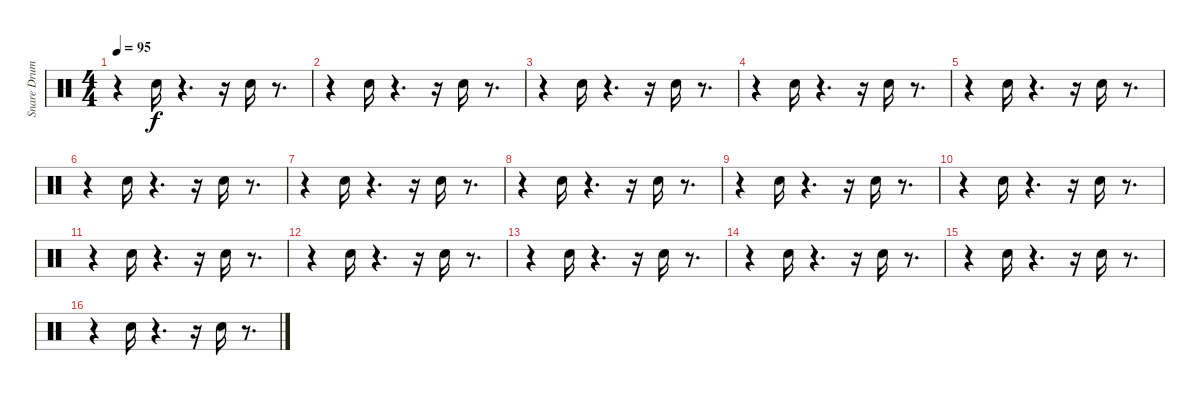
\track ("Snare Drum" "Snare Drum") {instrument percussion}
\staff {score}
\articulation defaults
\ts (4 4)
\tempo 95
\clef neutral
\ks c
r.4{dy f} "Snare (hit) 2".16 r.4{d} r.16 "Snare (hit) 2".16 r.8{d} |
r.4 "Snare (hit) 2".16 r.4{d} r.16 "Snare (hit) 2".16 r.8{d} |
r.4 "Snare (hit) 2".16 r.4{d} r.16 "Snare (hit) 2".16 r.8{d} |
r.4 "Snare (hit) 2".16 r.4{d} r.16 "Snare (hit) 2".16 r.8{d} |
r.4 "Snare (hit) 2".16 r.4{d} r.16 "Snare (hit) 2".16 r.8{d} |
r.4 "Snare (hit) 2".16 r.4{d} r.16 "Snare (hit) 2".16 r.8{d} |
r.4 "Snare (hit) 2".16 r.4{d} r.16 "Snare (hit) 2".16 r.8{d} |
r.4 "Snare (hit) 2".16 r.4{d} r.16 "Snare (hit) 2".16 r.8{d} |
r.4 "Snare (hit) 2".16 r.4{d} r.16 "Snare (hit) 2".16 r.8{d} |
r.4 "Snare (hit) 2".16 r.4{d} r.16 "Snare (hit) 2".16 r.8{d} |
r.4 "Snare (hit) 2".16 r.4{d} r.16 "Snare (hit) 2".16 r.8{d} |
r.4 "Snare (hit) 2".16 r.4{d} r.16 "Snare (hit) 2".16 r.8{d} |
r.4 "Snare (hit) 2".16 r.4{d} r.16 "Snare (hit) 2".16 r.8{d} |
r.4 "Snare (hit) 2".16 r.4{d} r.16 "Snare (hit) 2".16 r.8{d} |
r.4 "Snare (hit) 2".16 r.4{d} r.16 "Snare (hit) 2".16 r.8{d} |
r.4 "Snare (hit) 2".16 r.4{d} r.16 "Snare (hit) 2".16 r.8{d}
